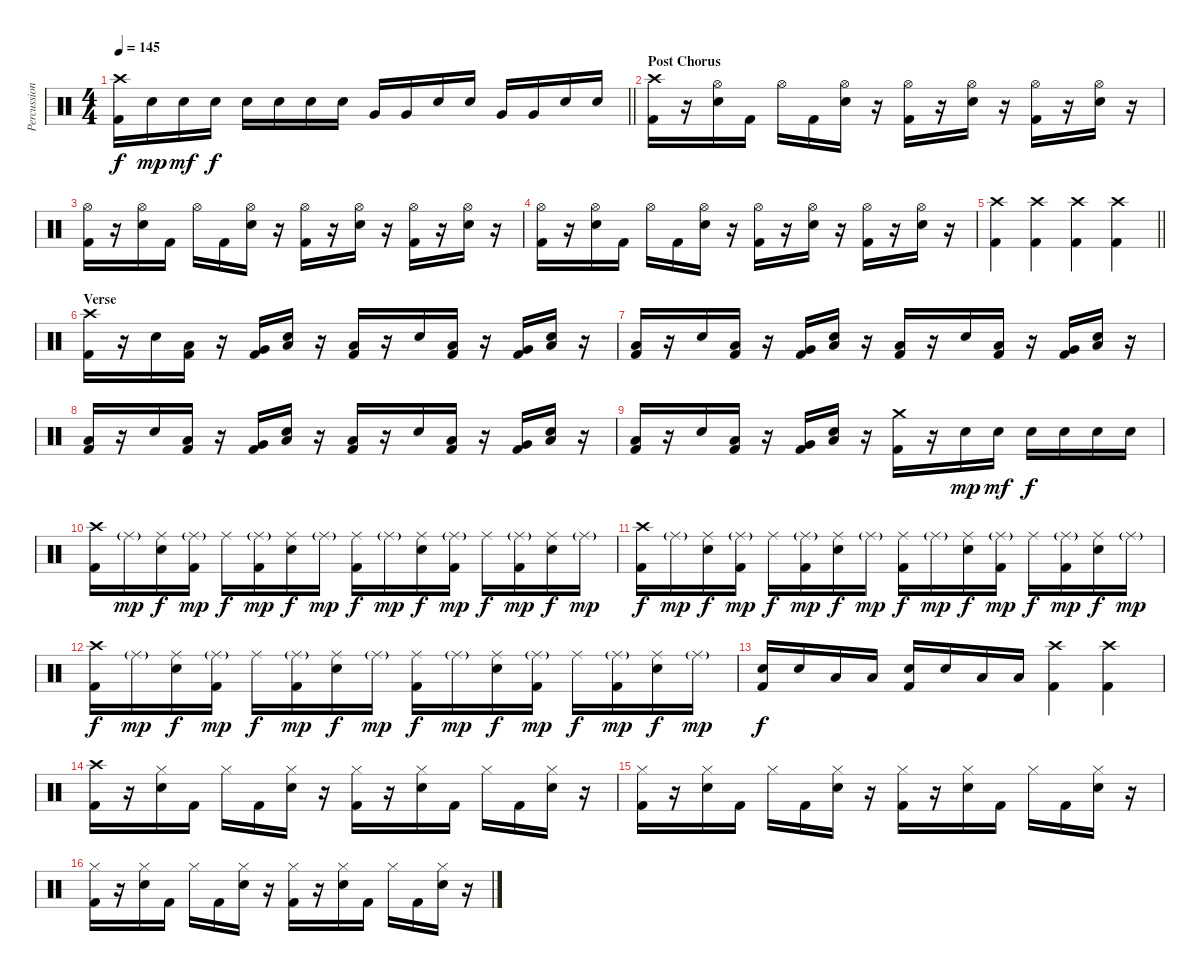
\track ("Percussion" "Percussion") {instrument percussion}
\staff {score}
\articulation defaults
\ts (4 4)
\tempo 145
\clef neutral
\barLineRight lightlight
\ks c
("Crash high (hit)" "Kick (hit) 2").16{dy f} "Electric Snare (hit)".16{dy mp} "Electric Snare (hit)".16{dy mf} "Electric Snare (hit)".16{dy f} "Electric Snare (hit)".16 "Electric Snare (hit)".16 "Electric Snare (hit)".16 "Electric Snare (hit)".16 "Very Low Tom (hit)".16 "Very Low Tom (hit)".16 "Electric Snare (hit)".16 "Electric Snare (hit)".16 "Very Low Tom (hit)".16 "Very Low Tom (hit)".16 "Electric Snare (hit)".16 "Electric Snare (hit)".16 |
\section ("" "Post Chorus")
("Crash high (hit)" "Kick (hit) 2").16 r.16 ("Hi-Hat (open)" "Electric Snare (hit)").16 "Kick (hit) 2".16 "Hi-Hat (open)".16 "Kick (hit) 2".16 ("Hi-Hat (open)" "Electric Snare (hit)").16 r.16 ("Hi-Hat (open)" "Kick (hit) 2").16 r.16 ("Hi-Hat (open)" "Electric Snare (hit)").16 r.16 ("Hi-Hat (open)" "Kick (hit) 2").16 r.16 ("Hi-Hat (open)" "Electric Snare (hit)").16 r.16 |
("Hi-Hat (open)" "Kick (hit) 2").16 r.16 ("Hi-Hat (open)" "Electric Snare (hit)").16 "Kick (hit) 2".16 "Hi-Hat (open)".16 "Kick (hit) 2".16 ("Hi-Hat (open)" "Electric Snare (hit)").16 r.16 ("Hi-Hat (open)" "Kick (hit) 2").16 r.16 ("Hi-Hat (open)" "Electric Snare (hit)").16 r.16 ("Hi-Hat (open)" "Kick (hit) 2").16 r.16 ("Hi-Hat (open)" "Electric Snare (hit)").16 r.16 |
("Hi-Hat (open)" "Kick (hit) 2").16 r.16 ("Hi-Hat (open)" "Electric Snare (hit)").16 "Kick (hit) 2".16 "Hi-Hat (open)".16 "Kick (hit) 2".16 ("Hi-Hat (open)" "Electric Snare (hit)").16 r.16 ("Hi-Hat (open)" "Kick (hit) 2").16 r.16 ("Hi-Hat (open)" "Electric Snare (hit)").16 r.16 ("Hi-Hat (open)" "Kick (hit) 2").16 r.16 ("Hi-Hat (open)" "Electric Snare (hit)").16 r.16 |
\barLineRight lightlight
("Crash high (hit)" "Kick (hit) 2").4 ("Crash high (hit)" "Kick (hit) 2").4 ("Crash high (hit)" "Kick (hit) 2").4 ("Crash high (hit)" "Kick (hit) 2").4 |
\section ("" "Verse")
("Crash high (hit)" "Kick (hit) 2").16 r.16 "Electric Snare (hit)".16 ("Low Tom (hit)" "Kick (hit) 2").16 r.16 ("Very Low Tom (hit)" "Kick (hit) 2").16 ("Low Floor Tom (hit)" "Electric Snare (hit)").16 r.16 ("Low Floor Tom (hit)" "Kick (hit) 2").16 r.16 "Electric Snare (hit)".16 ("Low Tom (hit)" "Kick (hit) 2").16 r.16 ("Very Low Tom (hit)" "Kick (hit) 2").16 ("Low Floor Tom (hit)" "Electric Snare (hit)").16 r.16 |
("Low Floor Tom (hit)" "Kick (hit) 2").16 r.16 "Electric Snare (hit)".16 ("Low Tom (hit)" "Kick (hit) 2").16 r.16 ("Very Low Tom (hit)" "Kick (hit) 2").16 ("Low Floor Tom (hit)" "Electric Snare (hit)").16 r.16 ("Low Floor Tom (hit)" "Kick (hit) 2").16 r.16 "Electric Snare (hit)".16 ("Low Tom (hit)" "Kick (hit) 2").16 r.16 ("Very Low Tom (hit)" "Kick (hit) 2").16 ("Low Floor Tom (hit)" "Electric Snare (hit)").16 r.16 |
("Low Floor Tom (hit)" "Kick (hit) 2").16 r.16 "Electric Snare (hit)".16 ("Low Tom (hit)" "Kick (hit) 2").16 r.16 ("Very Low Tom (hit)" "Kick (hit) 2").16 ("Low Floor Tom (hit)" "Electric Snare (hit)").16 r.16 ("Low Floor Tom (hit)" "Kick (hit) 2").16 r.16 "Electric Snare (hit)".16 ("Low Tom (hit)" "Kick (hit) 2").16 r.16 ("Very Low Tom (hit)" "Kick (hit) 2").16 ("Low Floor Tom (hit)" "Electric Snare (hit)").16 r.16 |
("Low Floor Tom (hit)" "Kick (hit) 2").16 r.16 "Electric Snare (hit)".16 ("Low Tom (hit)" "Kick (hit) 2").16 r.16 ("Very Low Tom (hit)" "Kick (hit) 2").16 ("Low Floor Tom (hit)" "Electric Snare (hit)").16 r.16 ("Crash medium (hit)" "Kick (hit) 2").16 r.16 "Electric Snare (hit)".16{dy mp} "Electric Snare (hit)".16{dy mf} "Electric Snare (hit)".16{dy f} "Electric Snare (hit)".16 "Electric Snare (hit)".16 "Electric Snare (hit)".16 |
("Crash high (hit)" "Kick (hit) 2").16 "Ride (middle)"{g}.16{dy mp} ("Ride (middle)" "Electric Snare (hit)").16{dy f} ("Ride (middle)"{g} "Kick (hit) 2").16{dy mp} "Ride (middle)".16{dy f} ("Ride (middle)"{g} "Kick (hit) 2").16{dy mp} ("Ride (middle)" "Electric Snare (hit)").16{dy f} "Ride (middle)"{g}.16{dy mp} ("Ride (middle)" "Kick (hit) 2").16{dy f} "Ride (middle)"{g}.16{dy mp} ("Ride (middle)" "Electric Snare (hit)").16{dy f} ("Ride (middle)"{g} "Kick (hit) 2").16{dy mp} "Ride (middle)".16{dy f} ("Ride (middle)"{g} "Kick (hit) 2").16{dy mp} ("Ride (middle)" "Electric Snare (hit)").16{dy f} "Ride (middle)"{g}.16{dy mp} |
("Crash high (hit)" "Kick (hit) 2").16{dy f} "Ride (middle)"{g}.16{dy mp} ("Ride (middle)" "Electric Snare (hit)").16{dy f} ("Ride (middle)"{g} "Kick (hit) 2").16{dy mp} "Ride (middle)".16{dy f} ("Ride (middle)"{g} "Kick (hit) 2").16{dy mp} ("Ride (middle)" "Electric Snare (hit)").16{dy f} "Ride (middle)"{g}.16{dy mp} ("Ride (middle)" "Kick (hit) 2").16{dy f} "Ride (middle)"{g}.16{dy mp} ("Ride (middle)" "Electric Snare (hit)").16{dy f} ("Ride (middle)"{g} "Kick (hit) 2").16{dy mp} "Ride (middle)".16{dy f} ("Ride (middle)"{g} "Kick (hit) 2").16{dy mp} ("Ride (middle)" "Electric Snare (hit)").16{dy f} "Ride (middle)"{g}.16{dy mp} |
("Crash high (hit)" "Kick (hit) 2").16{dy f} "Ride (middle)"{g}.16{dy mp} ("Ride (middle)" "Electric Snare (hit)").16{dy f} ("Ride (middle)"{g} "Kick (hit) 2").16{dy mp} "Ride (middle)".16{dy f} ("Ride (middle)"{g} "Kick (hit) 2").16{dy mp} ("Ride (middle)" "Electric Snare (hit)").16{dy f} "Ride (middle)"{g}.16{dy mp} ("Ride (middle)" "Kick (hit) 2").16{dy f} "Ride (middle)"{g}.16{dy mp} ("Ride (middle)" "Electric Snare (hit)").16{dy f} ("Ride (middle)"{g} "Kick (hit) 2").16{dy mp} "Ride (middle)".16{dy f} ("Ride (middle)"{g} "Kick (hit) 2").16{dy mp} ("Ride (middle)" "Electric Snare (hit)").16{dy f} "Ride (middle)"{g}.16{dy mp} |
("Electric Snare (hit)" "Kick (hit) 2").16{dy f} "Electric Snare (hit)".16 "Low Floor Tom (hit)".16 "Low Floor Tom (hit)".16 ("Electric Snare (hit)" "Kick (hit) 2").16 "Electric Snare (hit)".16 "Low Floor Tom (hit)".16 "Low Floor Tom (hit)".16 ("Crash high (hit)" "Kick (hit) 2").4 ("Crash high (hit)" "Kick (hit) 2").4 |
("Crash high (hit)" "Kick (hit) 2").16 r.16 ("Hi-Hat (closed)" "Electric Snare (hit)").16 "Kick (hit) 2".16 "Hi-Hat (closed)".16 "Kick (hit) 2".16 ("Hi-Hat (closed)" "Electric Snare (hit)").16 r.16 ("Hi-Hat (closed)" "Kick (hit) 2").16 r.16 ("Hi-Hat (closed)" "Electric Snare (hit)").16 "Kick (hit) 2".16 "Hi-Hat (closed)".16 "Kick (hit) 2".16 ("Hi-Hat (closed)" "Electric Snare (hit)").16 r.16 |
("Hi-Hat (closed)" "Kick (hit) 2").16 r.16 ("Hi-Hat (closed)" "Electric Snare (hit)").16 "Kick (hit) 2".16 "Hi-Hat (closed)".16 "Kick (hit) 2".16 ("Hi-Hat (closed)" "Electric Snare (hit)").16 r.16 ("Hi-Hat (closed)" "Kick (hit) 2").16 r.16 ("Hi-Hat (closed)" "Electric Snare (hit)").16 "Kick (hit) 2".16 "Hi-Hat (closed)".16 "Kick (hit) 2".16 ("Hi-Hat (closed)" "Electric Snare (hit)").16 r.16 |
("Hi-Hat (closed)" "Kick (hit) 2").16 r.16 ("Hi-Hat (closed)" "Electric Snare (hit)").16 "Kick (hit) 2".16 "Hi-Hat (closed)".16 "Kick (hit) 2".16 ("Hi-Hat (closed)" "Electric Snare (hit)").16 r.16 ("Hi-Hat (closed)" "Kick (hit) 2").16 r.16 ("Hi-Hat (closed)" "Electric Snare (hit)").16 "Kick (hit) 2".16 "Hi-Hat (closed)".16 "Kick (hit) 2".16 ("Hi-Hat (closed)" "Electric Snare (hit)").16 r.16
